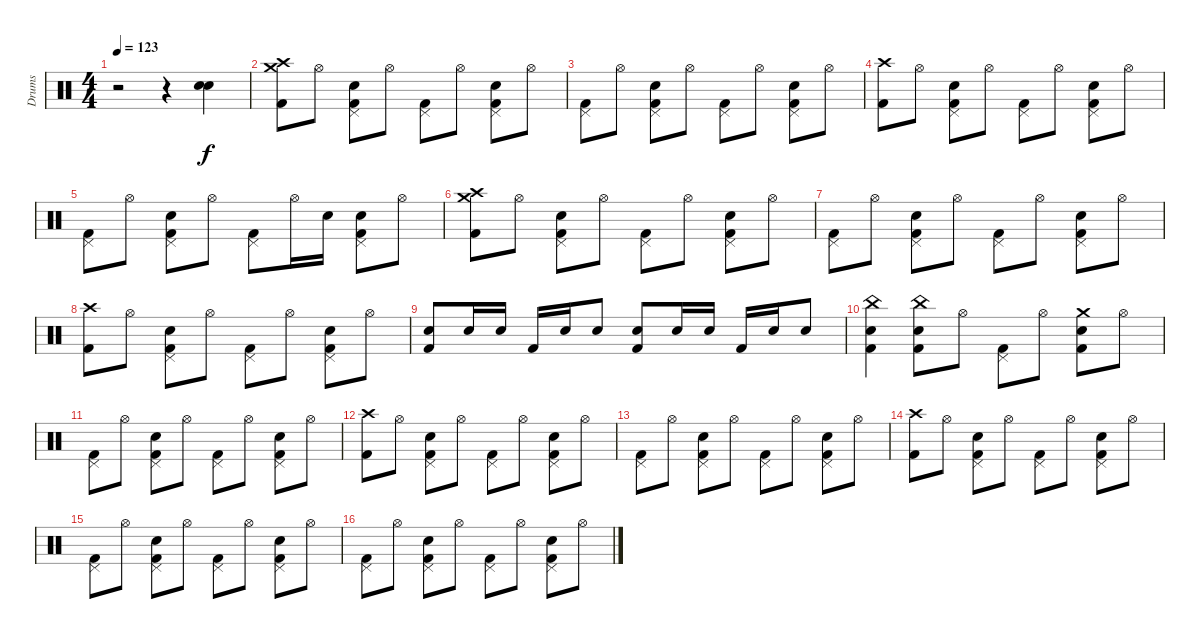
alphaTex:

\track ("Drums" "Drums") {instrument percussion}
\staff {score}
\articulation defaults
\ts (4 4)
\tempo 123
\clef neutral
\ks c
r.2{dy f} r.4 ("Snare (hit) 2" "Snare (hit) 2").4 |
("Crash high (hit)" "Crash medium (hit)" "Kick (hit) 2").8 "Hi-Hat (open)".8 ("Pedal Hi-Hat (hit)" "Snare (hit) 2" "Kick (hit) 2").8 "Hi-Hat (open)".8 ("Pedal Hi-Hat (hit)" "Kick (hit) 2").8 "Hi-Hat (open)".8 ("Pedal Hi-Hat (hit)" "Snare (hit) 2" "Kick (hit) 2").8 "Hi-Hat (open)".8 |
("Pedal Hi-Hat (hit)" "Kick (hit) 2").8 "Hi-Hat (open)".8 ("Pedal Hi-Hat (hit)" "Snare (hit) 2" "Kick (hit) 2").8 "Hi-Hat (open)".8 ("Pedal Hi-Hat (hit)" "Kick (hit) 2").8 "Hi-Hat (open)".8 ("Pedal Hi-Hat (hit)" "Snare (hit) 2" "Kick (hit) 2").8 "Hi-Hat (open)".8 |
("Crash high (hit)" "Kick (hit) 2").8 "Hi-Hat (open)".8 ("Pedal Hi-Hat (hit)" "Snare (hit) 2" "Kick (hit) 2").8 "Hi-Hat (open)".8 ("Pedal Hi-Hat (hit)" "Kick (hit) 2").8 "Hi-Hat (open)".8 ("Pedal Hi-Hat (hit)" "Snare (hit) 2" "Kick (hit) 2").8 "Hi-Hat (open)".8 |
("Pedal Hi-Hat (hit)" "Kick (hit) 2").8 "Hi-Hat (open)".8 ("Pedal Hi-Hat (hit)" "Snare (hit) 2" "Kick (hit) 2").8 "Hi-Hat (open)".8 ("Pedal Hi-Hat (hit)" "Kick (hit) 2").8 "Hi-Hat (open)".16 "Snare (hit) 2".16 ("Pedal Hi-Hat (hit)" "Snare (hit) 2" "Kick (hit) 2").8 "Hi-Hat (open)".8 |
("Crash high (hit)" "Crash medium (hit)" "Kick (hit) 2").8 "Hi-Hat (open)".8 ("Pedal Hi-Hat (hit)" "Snare (hit) 2" "Kick (hit) 2").8 "Hi-Hat (open)".8 ("Pedal Hi-Hat (hit)" "Kick (hit) 2").8 "Hi-Hat (open)".8 ("Pedal Hi-Hat (hit)" "Snare (hit) 2" "Kick (hit) 2").8 "Hi-Hat (open)".8 |
("Pedal Hi-Hat (hit)" "Kick (hit) 2").8 "Hi-Hat (open)".8 ("Pedal Hi-Hat (hit)" "Snare (hit) 2" "Kick (hit) 2").8 "Hi-Hat (open)".8 ("Pedal Hi-Hat (hit)" "Kick (hit) 2").8 "Hi-Hat (open)".8 ("Pedal Hi-Hat (hit)" "Snare (hit) 2" "Kick (hit) 2").8 "Hi-Hat (open)".8 |
("Crash high (hit)" "Kick (hit) 2").8 "Hi-Hat (open)".8 ("Pedal Hi-Hat (hit)" "Snare (hit) 2" "Kick (hit) 2").8 "Hi-Hat (open)".8 ("Pedal Hi-Hat (hit)" "Kick (hit) 2").8 "Hi-Hat (open)".8 ("Pedal Hi-Hat (hit)" "Snare (hit) 2" "Kick (hit) 2").8 "Hi-Hat (open)".8 |
("Snare (hit) 2" "Kick (hit) 2").8 "Snare (hit) 2".16 "Snare (hit) 2".16 "Kick (hit) 2".16 "Snare (hit) 2".16 "Snare (hit) 2".8 ("Snare (hit) 2" "Kick (hit) 2").8 "Snare (hit) 2".16 "Snare (hit) 2".16 "Kick (hit) 2".16 "Snare (hit) 2".16 "Snare (hit) 2".8 |
("China (hit)" "Snare (hit) 2" "Kick (hit) 2").4 ("China (hit)" "Snare (hit) 2" "Kick (hit) 2").8 "Hi-Hat (open)".8 ("Pedal Hi-Hat (hit)" "Kick (hit) 2").8 "Hi-Hat (open)".8 ("Crash medium (hit)" "Snare (hit) 2" "Kick (hit) 2").8 "Hi-Hat (open)".8 |
("Pedal Hi-Hat (hit)" "Kick (hit) 2").8 "Hi-Hat (open)".8 ("Pedal Hi-Hat (hit)" "Snare (hit) 2" "Kick (hit) 2").8 "Hi-Hat (open)".8 ("Pedal Hi-Hat (hit)" "Kick (hit) 2").8 "Hi-Hat (open)".8 ("Pedal Hi-Hat (hit)" "Snare (hit) 2" "Kick (hit) 2").8 "Hi-Hat (open)".8 |
("Crash high (hit)" "Kick (hit) 2").8 "Hi-Hat (open)".8 ("Pedal Hi-Hat (hit)" "Snare (hit) 2" "Kick (hit) 2").8 "Hi-Hat (open)".8 ("Pedal Hi-Hat (hit)" "Kick (hit) 2").8 "Hi-Hat (open)".8 ("Pedal Hi-Hat (hit)" "Snare (hit) 2" "Kick (hit) 2").8 "Hi-Hat (open)".8 |
("Pedal Hi-Hat (hit)" "Kick (hit) 2").8 "Hi-Hat (open)".8 ("Pedal Hi-Hat (hit)" "Snare (hit) 2" "Kick (hit) 2").8 "Hi-Hat (open)".8 ("Pedal Hi-Hat (hit)" "Kick (hit) 2").8 "Hi-Hat (open)".8 ("Pedal Hi-Hat (hit)" "Snare (hit) 2" "Kick (hit) 2").8 "Hi-Hat (open)".8 |
("Crash high (hit)" "Kick (hit) 2").8 "Hi-Hat (open)".8 ("Pedal Hi-Hat (hit)" "Snare (hit) 2" "Kick (hit) 2").8 "Hi-Hat (open)".8 ("Pedal Hi-Hat (hit)" "Kick (hit) 2").8 "Hi-Hat (open)".8 ("Pedal Hi-Hat (hit)" "Snare (hit) 2" "Kick (hit) 2").8 "Hi-Hat (open)".8 |
("Pedal Hi-Hat (hit)" "Kick (hit) 2").8 "Hi-Hat (open)".8 ("Pedal Hi-Hat (hit)" "Snare (hit) 2" "Kick (hit) 2").8 "Hi-Hat (open)".8 ("Pedal Hi-Hat (hit)" "Kick (hit) 2").8 "Hi-Hat (open)".8 ("Pedal Hi-Hat (hit)" "Snare (hit) 2" "Kick (hit) 2").8 "Hi-Hat (open)".8 |
("Pedal Hi-Hat (hit)" "Kick (hit) 2").8 "Hi-Hat (open)".8 ("Pedal Hi-Hat (hit)" "Snare (hit) 2" "Kick (hit) 2").8 "Hi-Hat (open)".8 ("Pedal Hi-Hat (hit)" "Kick (hit) 2").8 "Hi-Hat (open)".8 ("Pedal Hi-Hat (hit)" "Snare (hit) 2" "Kick (hit) 2").8 "Hi-Hat (open)".8
